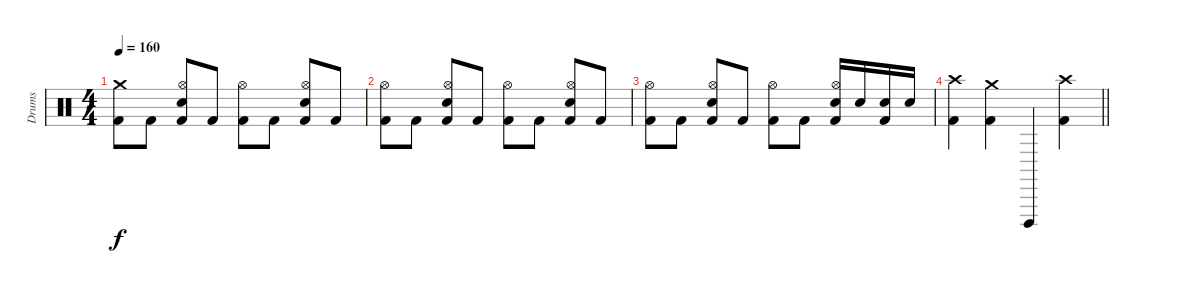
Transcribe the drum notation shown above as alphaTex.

\track ("Drums" "Drums") {instrument percussion}
\staff {score}
\articulation defaults
\ts (4 4)
\tempo 160
\clef neutral
\ks c
("Crash medium (hit)" "Kick (hit) 2").8{dy f} "Kick (hit) 2".8 ("Hi-Hat (open)" "Snare (hit) 2" "Kick (hit) 2").8 "Kick (hit) 2".8 ("Hi-Hat (open)" "Kick (hit) 2").8 "Kick (hit) 2".8 ("Hi-Hat (open)" "Snare (hit) 2" "Kick (hit) 2").8 "Kick (hit) 2".8 |
("Hi-Hat (open)" "Kick (hit) 2").8 "Kick (hit) 2".8 ("Hi-Hat (open)" "Snare (hit) 2" "Kick (hit) 2").8 "Kick (hit) 2".8 ("Hi-Hat (open)" "Kick (hit) 2").8 "Kick (hit) 2".8 ("Hi-Hat (open)" "Snare (hit) 2" "Kick (hit) 2").8 "Kick (hit) 2".8 |
("Hi-Hat (open)" "Kick (hit) 2").8 "Kick (hit) 2".8 ("Hi-Hat (open)" "Snare (hit) 2" "Kick (hit) 2").8 "Kick (hit) 2".8 ("Hi-Hat (open)" "Kick (hit) 2").8 "Kick (hit) 2".8 ("Hi-Hat (open)" "Snare (hit) 2" "Kick (hit) 2").16 "Snare (hit) 2".16 ("Snare (hit) 2" "Kick (hit) 2").16 "Snare (hit) 2".16 |
\barLineRight lightlight
("Crash high (hit)" "Kick (hit) 2").4 ("Crash medium (hit)" "Kick (hit) 2").4 "Cuica (open)".4 ("Crash high (hit)" "Kick (hit) 2").4
